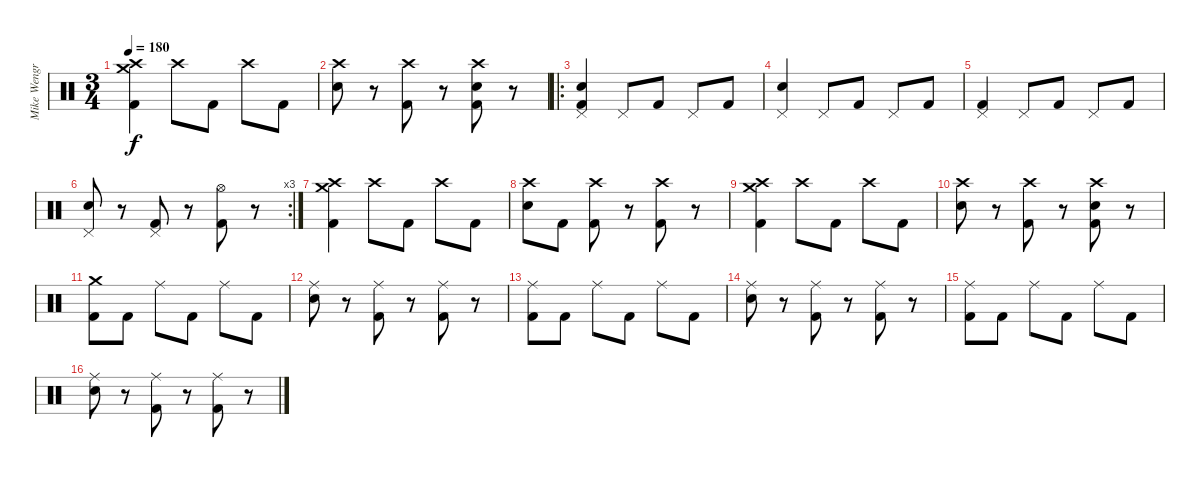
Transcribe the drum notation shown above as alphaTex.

\track ("Mike Wengren" "Mike Wengr") {instrument percussion}
\staff {score}
\articulation defaults
\ts (3 4)
\tempo 180
\clef neutral
\ks c
("Crash medium (hit)" "Crash high (hit)" "Kick (hit) 2").4{dy f} "Crash high (hit)".8 "Kick (hit) 2".8 "Crash high (hit)".8 "Kick (hit) 2".8 |
("Crash high (hit)" "Snare (hit) 2").8 r.8 ("Crash high (hit)" "Kick (hit) 2").8 r.8 ("Crash high (hit)" "Snare (hit) 2" "Kick (hit) 2").8 r.8 |
\ro
("Pedal Hi-Hat (hit)" "Snare (hit) 2" "Kick (hit) 2").4 "Pedal Hi-Hat (hit)".8 "Kick (hit) 2".8 "Pedal Hi-Hat (hit)".8 "Kick (hit) 2".8 |
("Pedal Hi-Hat (hit)" "Snare (hit) 2").4 "Pedal Hi-Hat (hit)".8 "Kick (hit) 2".8 "Pedal Hi-Hat (hit)".8 "Kick (hit) 2".8 |
("Pedal Hi-Hat (hit)" "Kick (hit) 2").4 "Pedal Hi-Hat (hit)".8 "Kick (hit) 2".8 "Pedal Hi-Hat (hit)".8 "Kick (hit) 2".8 |
\rc 3
("Pedal Hi-Hat (hit)" "Snare (hit) 2").8 r.8 ("Pedal Hi-Hat (hit)" "Kick (hit) 2").8 r.8 ("Hi-Hat (open)" "Kick (hit) 2").8 r.8 |
("Crash medium (hit)" "Crash high (hit)" "Kick (hit) 2").4 "Crash high (hit)".8 "Kick (hit) 2".8 "Crash high (hit)".8 "Kick (hit) 2".8 |
("Crash high (hit)" "Snare (hit) 2").8 "Kick (hit) 2".8 ("Crash high (hit)" "Kick (hit) 2").8 r.8 ("Crash high (hit)" "Kick (hit) 2").8 r.8 |
("Crash medium (hit)" "Crash high (hit)" "Kick (hit) 2").4 "Crash high (hit)".8 "Kick (hit) 2".8 "Crash high (hit)".8 "Kick (hit) 2".8 |
("Crash high (hit)" "Snare (hit) 2").8 r.8 ("Crash high (hit)" "Kick (hit) 2").8 r.8 ("Crash high (hit)" "Snare (hit) 2" "Kick (hit) 2").8 r.8 |
("Crash medium (hit)" "Kick (hit) 2").8 "Kick (hit) 2".8 "Ride (middle)".8 "Kick (hit) 2".8 "Ride (middle)".8 "Kick (hit) 2".8 |
("Ride (middle)" "Snare (hit) 2").8 r.8 ("Ride (middle)" "Kick (hit) 2").8 r.8 ("Ride (middle)" "Kick (hit) 2").8 r.8 |
("Ride (middle)" "Kick (hit) 2").8 "Kick (hit) 2".8 "Ride (middle)".8 "Kick (hit) 2".8 "Ride (middle)".8 "Kick (hit) 2".8 |
("Ride (middle)" "Snare (hit) 2").8 r.8 ("Ride (middle)" "Kick (hit) 2").8 r.8 ("Ride (middle)" "Kick (hit) 2").8 r.8 |
("Ride (middle)" "Kick (hit) 2").8 "Kick (hit) 2".8 "Ride (middle)".8 "Kick (hit) 2".8 "Ride (middle)".8 "Kick (hit) 2".8 |
("Ride (middle)" "Snare (hit) 2").8 r.8 ("Ride (middle)" "Kick (hit) 2").8 r.8 ("Ride (middle)" "Kick (hit) 2").8 r.8
